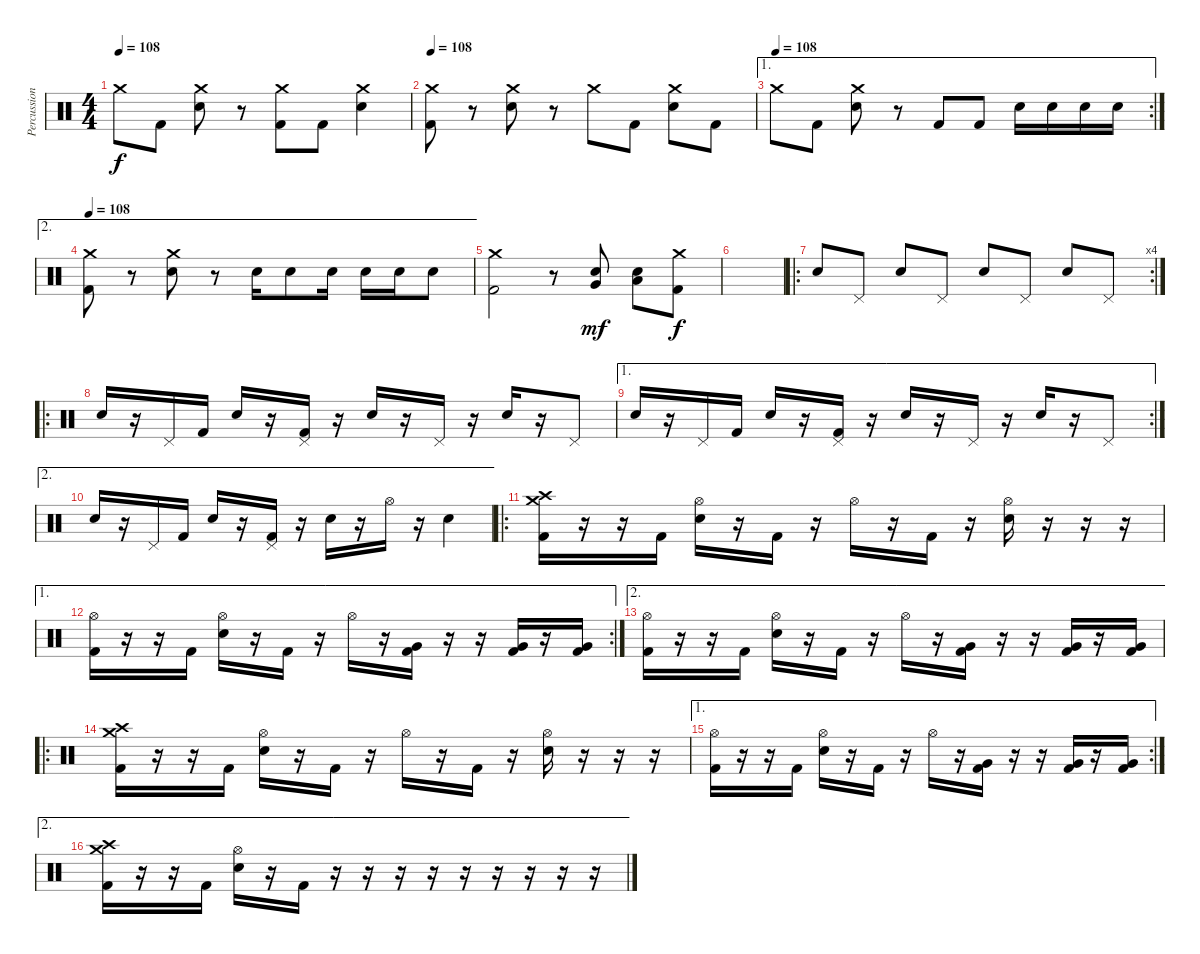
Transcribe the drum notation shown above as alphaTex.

\track ("Percussion" "Percussion") {instrument percussion}
\staff {score}
\articulation defaults
\ts (4 4)
\tempo 108
\clef neutral
\ks c "Crash medium (hit)".8{dy f} "Kick (hit) 2".8
("Crash medium (hit)" "Electric Snare (hit)").8 r.8 ("Crash medium (hit)" "Kick (hit) 2").8 "Kick (hit) 2".8 ("Crash medium (hit)" "Electric Snare (hit)").4 |
\tempo 108
("Crash medium (hit)" "Kick (hit) 2").8 r.8 ("Crash medium (hit)" "Electric Snare (hit)").8 r.8 "Crash medium (hit)".8 "Kick (hit) 2".8 ("Crash medium (hit)" "Electric Snare (hit)").8 "Kick (hit) 2".8 |
\ae 1
\rc 2
\tempo (108)
"Crash medium (hit)".8 "Kick (hit) 2".8 ("Crash medium (hit)" "Electric Snare (hit)").8 r.8 "Kick (hit) 2".8 "Kick (hit) 2".8 "Electric Snare (hit)".16 "Electric Snare (hit)".16 "Electric Snare (hit)".16 "Electric Snare (hit)".16 |
\ae 2
\tempo 108
("Crash medium (hit)" "Kick (hit) 2").8 r.8 ("Crash medium (hit)" "Electric Snare (hit)").8 r.8 "Electric Snare (hit)".16 "Electric Snare (hit)".8 "Electric Snare (hit)".16 "Electric Snare (hit)".16 "Electric Snare (hit)".16 "Electric Snare (hit)".8 |
("Crash medium (hit)" "Kick (hit) 2").2 r.8 ("Very Low Tom (hit)" "Electric Snare (hit)").8{dy mf} ("Low Floor Tom (hit)" "Electric Snare (hit)").8 ("Crash medium (hit)" "Kick (hit) 2").8{dy f} |
|
\ro
\rc 4 "Electric Snare (hit)".8 "Pedal Hi-Hat (hit)".8 "Electric Snare (hit)".8 "Pedal Hi-Hat (hit)".8 "Electric Snare (hit)".8 "Pedal Hi-Hat (hit)".8 "Electric Snare (hit)".8 "Pedal Hi-Hat (hit)".8
|
\ro "Electric Snare (hit)".16
r.16 "Pedal Hi-Hat (hit)".16 "Kick (hit) 2".16 "Electric Snare (hit)".16 r.16 ("Pedal Hi-Hat (hit)" "Kick (hit) 2").16 r.16 "Electric Snare (hit)".16 r.16 "Pedal Hi-Hat (hit)".16 r.16 "Electric Snare (hit)".16 r.16 "Pedal Hi-Hat (hit)".8 |
\ae 1
\rc 2 "Electric Snare (hit)".16
r.16 "Pedal Hi-Hat (hit)".16 "Kick (hit) 2".16 "Electric Snare (hit)".16 r.16 ("Pedal Hi-Hat (hit)" "Kick (hit) 2").16 r.16 "Electric Snare (hit)".16 r.16 "Pedal Hi-Hat (hit)".16 r.16 "Electric Snare (hit)".16 r.16 "Pedal Hi-Hat (hit)".8 |
\ae 2 "Electric Snare (hit)".16
r.16 "Pedal Hi-Hat (hit)".16 "Kick (hit) 2".16 "Electric Snare (hit)".16 r.16 ("Pedal Hi-Hat (hit)" "Kick (hit) 2").16 r.16 "Electric Snare (hit)".16 r.16 "Hi-Hat (open)".16 r.16 "Electric Snare (hit)".4 |
\ro
("Crash high (hit)" "Crash medium (hit)" "Kick (hit) 2").16 r.16 r.16 "Kick (hit) 2".16 ("Hi-Hat (open)" "Electric Snare (hit)").16 r.16 "Kick (hit) 2".16 r.16 "Hi-Hat (open)".16 r.16 "Kick (hit) 2".16 r.16 ("Hi-Hat (open)" "Electric Snare (hit)").16 r.16 r.16 r.16 |
\ae 1
\rc 2
("Hi-Hat (open)" "Kick (hit) 2").16 r.16 r.16 "Kick (hit) 2".16 ("Hi-Hat (open)" "Electric Snare (hit)").16 r.16 "Kick (hit) 2".16 r.16 "Hi-Hat (open)".16 r.16 ("Very Low Tom (hit)" "Kick (hit) 2").16 r.16 r.16 ("Very Low Tom (hit)" "Kick (hit) 2").16 r.16 ("Very Low Tom (hit)" "Kick (hit) 2").16 |
\ae 2
("Hi-Hat (open)" "Kick (hit) 2").16 r.16 r.16 "Kick (hit) 2".16 ("Hi-Hat (open)" "Electric Snare (hit)").16 r.16 "Kick (hit) 2".16 r.16 "Hi-Hat (open)".16 r.16 ("Very Low Tom (hit)" "Kick (hit) 2").16 r.16 r.16 ("Very Low Tom (hit)" "Kick (hit) 2").16 r.16 ("Very Low Tom (hit)" "Kick (hit) 2").16 |
\ro
("Crash high (hit)" "Crash medium (hit)" "Kick (hit) 2").16 r.16 r.16 "Kick (hit) 2".16 ("Hi-Hat (open)" "Electric Snare (hit)").16 r.16 "Kick (hit) 2".16 r.16 "Hi-Hat (open)".16 r.16 "Kick (hit) 2".16 r.16 ("Hi-Hat (open)" "Electric Snare (hit)").16 r.16 r.16 r.16 |
\ae 1
\rc 2
("Hi-Hat (open)" "Kick (hit) 2").16 r.16 r.16 "Kick (hit) 2".16 ("Hi-Hat (open)" "Electric Snare (hit)").16 r.16 "Kick (hit) 2".16 r.16 "Hi-Hat (open)".16 r.16 ("Very Low Tom (hit)" "Kick (hit) 2").16 r.16 r.16 ("Very Low Tom (hit)" "Kick (hit) 2").16 r.16 ("Very Low Tom (hit)" "Kick (hit) 2").16 |
\ae 2
("Crash high (hit)" "Crash medium (hit)" "Kick (hit) 2").16 r.16 r.16 "Kick (hit) 2".16 ("Hi-Hat (open)" "Electric Snare (hit)").16 r.16 "Kick (hit) 2".16 r.16 r.16 r.16 r.16 r.16 r.16 r.16 r.16 r.16
